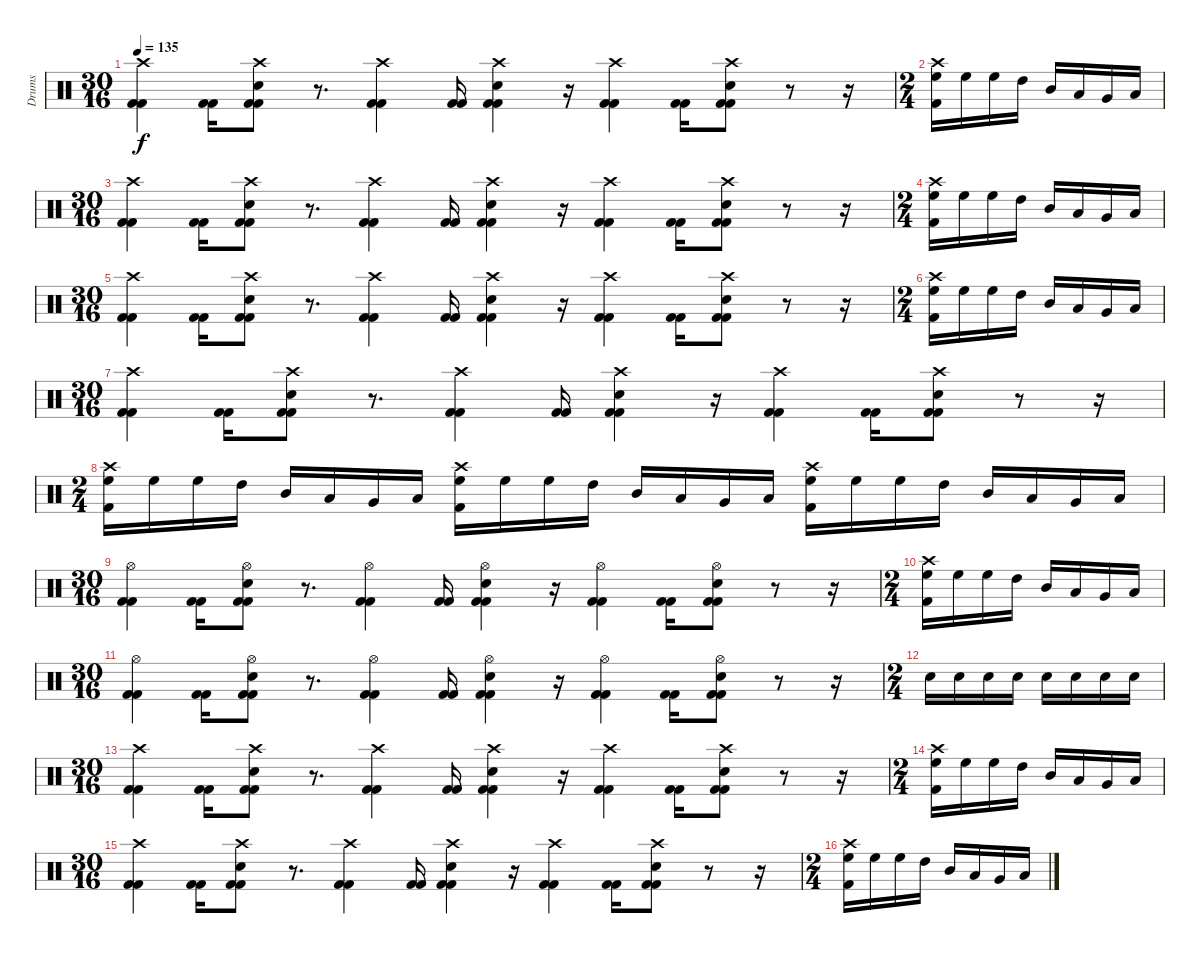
\track ("Drums" "Drums") {instrument percussion}
\staff {score}
\articulation defaults
\ts (30 16)
\tempo 135
\clef neutral
\ks c
("Crash high (hit)" "Kick (hit) 2" "Kick (hit) 2").4{dy f} ("Kick (hit) 2" "Kick (hit) 2").16 ("Crash high (hit)" "Electric Snare (hit)" "Kick (hit) 2" "Kick (hit) 2").8 r.8{d} ("Crash high (hit)" "Kick (hit) 2" "Kick (hit) 2").4 ("Kick (hit) 2" "Kick (hit) 2").16 ("Crash high (hit)" "Electric Snare (hit)" "Kick (hit) 2" "Kick (hit) 2").4 r.16 ("Crash high (hit)" "Kick (hit) 2" "Kick (hit) 2").4 ("Kick (hit) 2" "Kick (hit) 2").16 ("Crash high (hit)" "Electric Snare (hit)" "Kick (hit) 2" "Kick (hit) 2").8 r.8 r.16 |
\ts (2 4)
("Crash high (hit)" "High Floor Tom (hit)" "Kick (hit) 2").16 "High Floor Tom (hit)".16 "High Floor Tom (hit)".16 "High Tom (hit)".16 "Mid Tom (hit)".16 "Low Tom (hit)".16 "Very Low Tom (hit)".16 "Low Floor Tom (hit)".16 |
\ts (30 16)
("Crash high (hit)" "Kick (hit) 2" "Kick (hit) 2").4 ("Kick (hit) 2" "Kick (hit) 2").16 ("Crash high (hit)" "Electric Snare (hit)" "Kick (hit) 2" "Kick (hit) 2").8 r.8{d} ("Crash high (hit)" "Kick (hit) 2" "Kick (hit) 2").4 ("Kick (hit) 2" "Kick (hit) 2").16 ("Crash high (hit)" "Electric Snare (hit)" "Kick (hit) 2" "Kick (hit) 2").4 r.16 ("Crash high (hit)" "Kick (hit) 2" "Kick (hit) 2").4 ("Kick (hit) 2" "Kick (hit) 2").16 ("Crash high (hit)" "Electric Snare (hit)" "Kick (hit) 2" "Kick (hit) 2").8 r.8 r.16 |
\ts (2 4)
("Crash high (hit)" "High Floor Tom (hit)" "Kick (hit) 2").16 "High Floor Tom (hit)".16 "High Floor Tom (hit)".16 "High Tom (hit)".16 "Mid Tom (hit)".16 "Low Tom (hit)".16 "Very Low Tom (hit)".16 "Low Floor Tom (hit)".16 |
\ts (30 16)
("Crash high (hit)" "Kick (hit) 2" "Kick (hit) 2").4 ("Kick (hit) 2" "Kick (hit) 2").16 ("Crash high (hit)" "Electric Snare (hit)" "Kick (hit) 2" "Kick (hit) 2").8 r.8{d} ("Crash high (hit)" "Kick (hit) 2" "Kick (hit) 2").4 ("Kick (hit) 2" "Kick (hit) 2").16 ("Crash high (hit)" "Electric Snare (hit)" "Kick (hit) 2" "Kick (hit) 2").4 r.16 ("Crash high (hit)" "Kick (hit) 2" "Kick (hit) 2").4 ("Kick (hit) 2" "Kick (hit) 2").16 ("Crash high (hit)" "Electric Snare (hit)" "Kick (hit) 2" "Kick (hit) 2").8 r.8 r.16 |
\ts (2 4)
("Crash high (hit)" "High Floor Tom (hit)" "Kick (hit) 2").16 "High Floor Tom (hit)".16 "High Floor Tom (hit)".16 "High Tom (hit)".16 "Mid Tom (hit)".16 "Low Tom (hit)".16 "Very Low Tom (hit)".16 "Low Floor Tom (hit)".16 |
\ts (30 16)
("Crash high (hit)" "Kick (hit) 2" "Kick (hit) 2").4 ("Kick (hit) 2" "Kick (hit) 2").16 ("Crash high (hit)" "Electric Snare (hit)" "Kick (hit) 2" "Kick (hit) 2").8 r.8{d} ("Crash high (hit)" "Kick (hit) 2" "Kick (hit) 2").4 ("Kick (hit) 2" "Kick (hit) 2").16 ("Crash high (hit)" "Electric Snare (hit)" "Kick (hit) 2" "Kick (hit) 2").4 r.16 ("Crash high (hit)" "Kick (hit) 2" "Kick (hit) 2").4 ("Kick (hit) 2" "Kick (hit) 2").16 ("Crash high (hit)" "Electric Snare (hit)" "Kick (hit) 2" "Kick (hit) 2").8 r.8 r.16 |
\ts (2 4)
("Crash high (hit)" "High Floor Tom (hit)" "Kick (hit) 2").16 "High Floor Tom (hit)".16 "High Floor Tom (hit)".16 "High Tom (hit)".16 "Mid Tom (hit)".16 "Low Tom (hit)".16 "Very Low Tom (hit)".16 "Low Floor Tom (hit)".16 ("Crash high (hit)" "High Floor Tom (hit)" "Kick (hit) 2").16 "High Floor Tom (hit)".16 "High Floor Tom (hit)".16 "High Tom (hit)".16 "Mid Tom (hit)".16 "Low Tom (hit)".16 "Very Low Tom (hit)".16 "Low Floor Tom (hit)".16 ("Crash high (hit)" "High Floor Tom (hit)" "Kick (hit) 2").16 "High Floor Tom (hit)".16 "High Floor Tom (hit)".16 "High Tom (hit)".16 "Mid Tom (hit)".16 "Low Tom (hit)".16 "Very Low Tom (hit)".16 "Low Floor Tom (hit)".16 |
\ts (30 16)
("Hi-Hat (open)" "Kick (hit) 2" "Kick (hit) 2").4 ("Kick (hit) 2" "Kick (hit) 2").16 ("Hi-Hat (open)" "Electric Snare (hit)" "Kick (hit) 2" "Kick (hit) 2").8 r.8{d} ("Hi-Hat (open)" "Kick (hit) 2" "Kick (hit) 2").4 ("Kick (hit) 2" "Kick (hit) 2").16 ("Hi-Hat (open)" "Electric Snare (hit)" "Kick (hit) 2" "Kick (hit) 2").4 r.16 ("Hi-Hat (open)" "Kick (hit) 2" "Kick (hit) 2").4 ("Kick (hit) 2" "Kick (hit) 2").16 ("Hi-Hat (open)" "Electric Snare (hit)" "Kick (hit) 2" "Kick (hit) 2").8 r.8 r.16 |
\ts (2 4)
("Crash high (hit)" "High Floor Tom (hit)" "Kick (hit) 2").16 "High Floor Tom (hit)".16 "High Floor Tom (hit)".16 "High Tom (hit)".16 "Mid Tom (hit)".16 "Low Tom (hit)".16 "Very Low Tom (hit)".16 "Low Floor Tom (hit)".16 |
\ts (30 16)
("Hi-Hat (open)" "Kick (hit) 2" "Kick (hit) 2").4 ("Kick (hit) 2" "Kick (hit) 2").16 ("Hi-Hat (open)" "Electric Snare (hit)" "Kick (hit) 2" "Kick (hit) 2").8 r.8{d} ("Hi-Hat (open)" "Kick (hit) 2" "Kick (hit) 2").4 ("Kick (hit) 2" "Kick (hit) 2").16 ("Hi-Hat (open)" "Electric Snare (hit)" "Kick (hit) 2" "Kick (hit) 2").4 r.16 ("Hi-Hat (open)" "Kick (hit) 2" "Kick (hit) 2").4 ("Kick (hit) 2" "Kick (hit) 2").16 ("Hi-Hat (open)" "Electric Snare (hit)" "Kick (hit) 2" "Kick (hit) 2").8 r.8 r.16 |
\ts (2 4)
"Electric Snare (hit)".16 "Electric Snare (hit)".16 "Electric Snare (hit)".16 "Electric Snare (hit)".16 "Electric Snare (hit)".16 "Electric Snare (hit)".16 "Electric Snare (hit)".16 "Electric Snare (hit)".16 |
\ts (30 16)
("Crash high (hit)" "Kick (hit) 2" "Kick (hit) 2").4 ("Kick (hit) 2" "Kick (hit) 2").16 ("Crash high (hit)" "Electric Snare (hit)" "Kick (hit) 2" "Kick (hit) 2").8 r.8{d} ("Crash high (hit)" "Kick (hit) 2" "Kick (hit) 2").4 ("Kick (hit) 2" "Kick (hit) 2").16 ("Crash high (hit)" "Electric Snare (hit)" "Kick (hit) 2" "Kick (hit) 2").4 r.16 ("Crash high (hit)" "Kick (hit) 2" "Kick (hit) 2").4 ("Kick (hit) 2" "Kick (hit) 2").16 ("Crash high (hit)" "Electric Snare (hit)" "Kick (hit) 2" "Kick (hit) 2").8 r.8 r.16 |
\ts (2 4)
("Crash high (hit)" "High Floor Tom (hit)" "Kick (hit) 2").16 "High Floor Tom (hit)".16 "High Floor Tom (hit)".16 "High Tom (hit)".16 "Mid Tom (hit)".16 "Low Tom (hit)".16 "Very Low Tom (hit)".16 "Low Floor Tom (hit)".16 |
\ts (30 16)
("Crash high (hit)" "Kick (hit) 2" "Kick (hit) 2").4 ("Kick (hit) 2" "Kick (hit) 2").16 ("Crash high (hit)" "Electric Snare (hit)" "Kick (hit) 2" "Kick (hit) 2").8 r.8{d} ("Crash high (hit)" "Kick (hit) 2" "Kick (hit) 2").4 ("Kick (hit) 2" "Kick (hit) 2").16 ("Crash high (hit)" "Electric Snare (hit)" "Kick (hit) 2" "Kick (hit) 2").4 r.16 ("Crash high (hit)" "Kick (hit) 2" "Kick (hit) 2").4 ("Kick (hit) 2" "Kick (hit) 2").16 ("Crash high (hit)" "Electric Snare (hit)" "Kick (hit) 2" "Kick (hit) 2").8 r.8 r.16 |
\ts (2 4)
("Crash high (hit)" "High Floor Tom (hit)" "Kick (hit) 2").16 "High Floor Tom (hit)".16 "High Floor Tom (hit)".16 "High Tom (hit)".16 "Mid Tom (hit)".16 "Low Tom (hit)".16 "Very Low Tom (hit)".16 "Low Floor Tom (hit)".16
